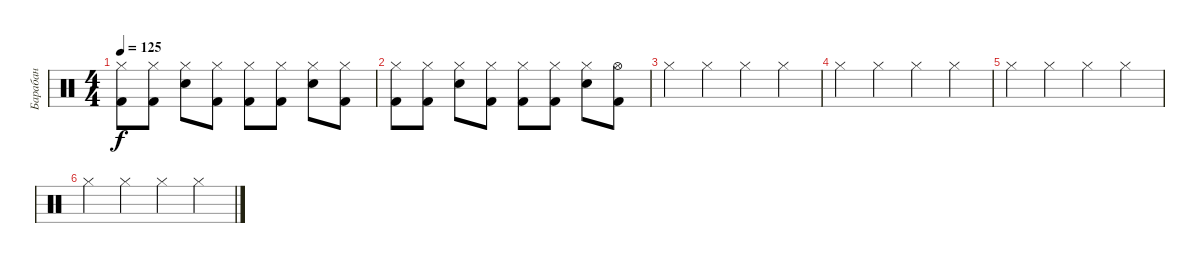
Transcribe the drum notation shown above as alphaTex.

\track ("Барабан" "Барабан") {instrument percussion}
\staff {score}
\articulation defaults
\ts (4 4)
\tempo 125
\clef neutral
\ks c
("Kick (hit) 2" "Hi-Hat (closed)").8{dy f} ("Kick (hit) 2" "Hi-Hat (closed)").8 ("Electric Snare (hit)" "Hi-Hat (closed)").8 ("Kick (hit) 2" "Hi-Hat (closed)").8 ("Kick (hit) 2" "Hi-Hat (closed)").8 ("Kick (hit) 2" "Hi-Hat (closed)").8 ("Electric Snare (hit)" "Hi-Hat (closed)").8 ("Kick (hit) 2" "Hi-Hat (closed)").8 |
("Kick (hit) 2" "Hi-Hat (closed)").8 ("Kick (hit) 2" "Hi-Hat (closed)").8 ("Electric Snare (hit)" "Hi-Hat (closed)").8 ("Kick (hit) 2" "Hi-Hat (closed)").8 ("Kick (hit) 2" "Hi-Hat (closed)").8 ("Kick (hit) 2" "Hi-Hat (closed)").8 ("Electric Snare (hit)" "Hi-Hat (closed)").8 ("Kick (hit) 2" "Hi-Hat (open)").8 |
"Hi-Hat (closed)".4 "Hi-Hat (closed)".4 "Hi-Hat (closed)".4 "Hi-Hat (closed)".4 |
"Hi-Hat (closed)".4 "Hi-Hat (closed)".4 "Hi-Hat (closed)".4 "Hi-Hat (closed)".4 |
"Hi-Hat (closed)".4 "Hi-Hat (closed)".4 "Hi-Hat (closed)".4 "Hi-Hat (closed)".4 |
"Hi-Hat (closed)".4 "Hi-Hat (closed)".4 "Hi-Hat (closed)".4 "Hi-Hat (closed)".4
